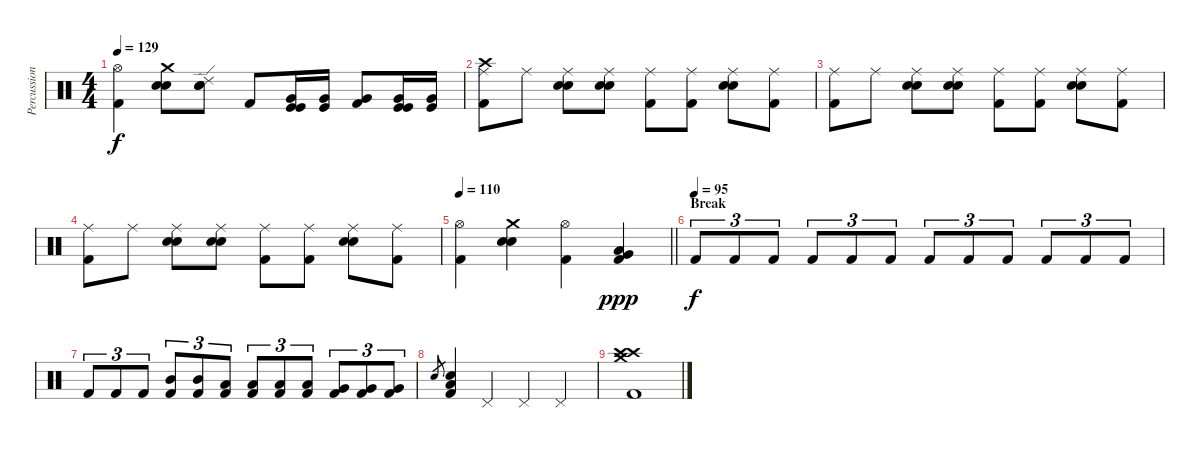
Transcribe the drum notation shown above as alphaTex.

\track ("Percussion" "Percussion") {instrument percussion}
\staff {score}
\articulation defaults
\ts (4 4)
\tempo 129
\clef neutral
\ks c
("Kick (hit) 2" "Hi-Hat (open)").4{dy f} ("Hand Clap (hit)" "Electric Snare (hit)" "Crash medium (hit)").8 ("Electric Snare (hit)" "Hand Clap (hit)" "Ride (edge) 2").8 "Kick (hit) 2".8 ("Very Low Tom (hit)" "Kick (hit)" "Kick (hit)").16 ("Very Low Tom (hit)" "Kick (hit)").16 ("Very Low Tom (hit)" "Kick (hit) 2").8 ("Very Low Tom (hit)" "Kick (hit)" "Kick (hit)").16 ("Very Low Tom (hit)" "Kick (hit)").16 |
("Kick (hit) 2" "Ride (middle)" "Crash high (hit)").8 "Ride (middle)".8 ("Hand Clap (hit)" "Electric Snare (hit)" "Ride (middle)").8 ("Electric Snare (hit)" "Hand Clap (hit)" "Ride (middle)").8 ("Kick (hit) 2" "Ride (middle)").8 ("Kick (hit) 2" "Ride (middle)").8 ("Electric Snare (hit)" "Ride (middle)" "Hand Clap (hit)").8 ("Kick (hit) 2" "Ride (middle)").8 |
("Kick (hit) 2" "Ride (middle)").8 "Ride (middle)".8 ("Hand Clap (hit)" "Electric Snare (hit)" "Ride (middle)").8 ("Electric Snare (hit)" "Hand Clap (hit)" "Ride (middle)").8 ("Kick (hit) 2" "Ride (middle)").8 ("Kick (hit) 2" "Ride (middle)").8 ("Electric Snare (hit)" "Ride (middle)" "Hand Clap (hit)").8 ("Kick (hit) 2" "Ride (middle)").8 |
("Kick (hit) 2" "Ride (middle)").8 "Ride (middle)".8 ("Hand Clap (hit)" "Electric Snare (hit)" "Ride (middle)").8 ("Electric Snare (hit)" "Hand Clap (hit)" "Ride (middle)").8 ("Kick (hit) 2" "Ride (middle)").8 ("Kick (hit) 2" "Ride (middle)").8 ("Electric Snare (hit)" "Ride (middle)" "Hand Clap (hit)").8 ("Kick (hit) 2" "Ride (middle)").8 |
\tempo 110
\barLineRight lightlight
("Kick (hit) 2" "Hi-Hat (open)").4 ("Hand Clap (hit)" "Electric Snare (hit)" "Crash medium (hit)").4 ("Kick (hit) 2" "Hi-Hat (open)").4 ("Very Low Tom (hit)" "Low Floor Tom (hit)" "Kick (hit) 2").4{dy ppp} |
\section ("" "Break")
\tempo (95)
"Kick (hit) 2".8{tu (3 2) dy f} "Kick (hit) 2".8{tu (3 2)} "Kick (hit) 2".8{tu (3 2)} "Kick (hit) 2".8{tu (3 2)} "Kick (hit) 2".8{tu (3 2)} "Kick (hit) 2".8{tu (3 2)} "Kick (hit) 2".8{tu (3 2)} "Kick (hit) 2".8{tu (3 2)} "Kick (hit) 2".8{tu (3 2)} "Kick (hit) 2".8{tu (3 2)} "Kick (hit) 2".8{tu (3 2)} "Kick (hit) 2".8{tu (3 2)} |
"Kick (hit) 2".8{tu (3 2)} "Kick (hit) 2".8{tu (3 2)} "Kick (hit) 2".8{tu (3 2)} ("Kick (hit) 2" "Mid Tom (hit)").8{tu (3 2)} ("Kick (hit) 2" "Mid Tom (hit)").8{tu (3 2)} ("Kick (hit) 2" "Low Tom (hit)").8{tu (3 2)} ("Kick (hit) 2" "Low Tom (hit)").8{tu (3 2)} ("Kick (hit) 2" "Low Tom (hit)").8{tu (3 2)} ("Kick (hit) 2" "Low Tom (hit)").8{tu (3 2)} ("Kick (hit) 2" "Very Low Tom (hit)").8{tu (3 2)} ("Kick (hit) 2" "Very Low Tom (hit)").8{tu (3 2)} ("Kick (hit) 2" "Very Low Tom (hit)").8{tu (3 2)} |
"Electric Snare (hit)".8{gr} ("Kick (hit) 2" "Electric Snare (hit)" "Low Floor Tom (hit)").4 "Pedal Hi-Hat (hit)".4 "Pedal Hi-Hat (hit)".4 "Pedal Hi-Hat (hit)".4 |
("Crash high (hit)" "Kick (hit) 2" "Crash high (hit)" "Crash medium (hit)").1
